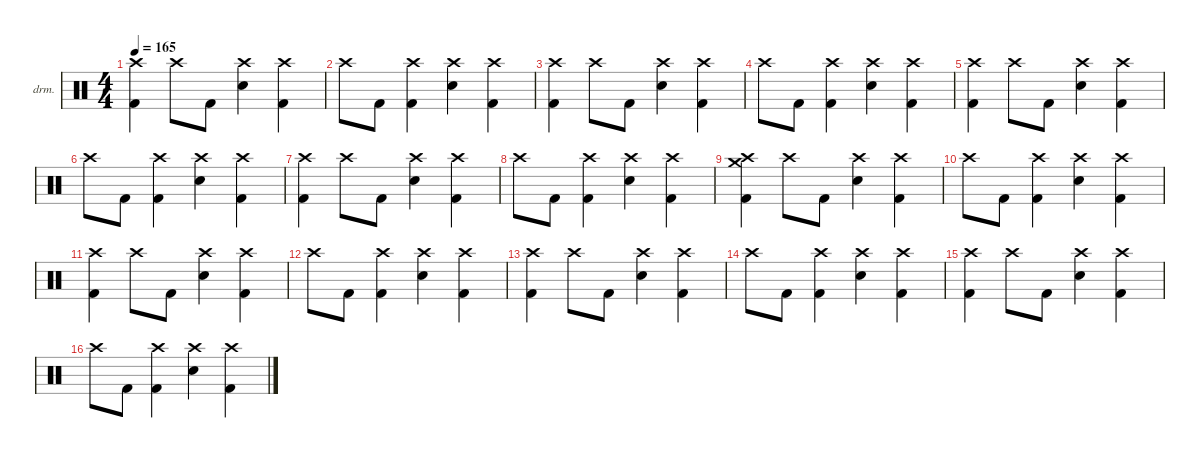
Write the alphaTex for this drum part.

\defaultSystemsLayout 4
\hideDynamics
\bracketExtendMode nobrackets
\firstSystemTrackNameOrientation horizontal
\otherSystemsTrackNameOrientation horizontal
\track ("Marty Chapman (Drums)" "drm.") {instrument percussion}
\staff {score}
\articulation defaults
\ts (4 4)
\tempo 165
\clef neutral
\ks c
("Crash high (hit)" "Kick (hit) 2").4{dy f beam Down} "Crash high (hit)".8{beam Down} "Kick (hit) 2".8{beam Down} ("Crash high (hit)" "Snare (hit) 2").4{beam Down} ("Crash high (hit)" "Kick (hit) 2").4{beam Down} |
"Crash high (hit)".8{beam Down} "Kick (hit) 2".8{beam Down} ("Crash high (hit)" "Kick (hit) 2").4{beam Down} ("Crash high (hit)" "Snare (hit) 2").4{beam Down} ("Crash high (hit)" "Kick (hit) 2").4{beam Down} |
("Crash high (hit)" "Kick (hit) 2").4{beam Down} "Crash high (hit)".8{beam Down} "Kick (hit) 2".8{beam Down} ("Crash high (hit)" "Snare (hit) 2").4{beam Down} ("Crash high (hit)" "Kick (hit) 2").4{beam Down} |
"Crash high (hit)".8{beam Down} "Kick (hit) 2".8{beam Down} ("Crash high (hit)" "Kick (hit) 2").4{beam Down} ("Crash high (hit)" "Snare (hit) 2").4{beam Down} ("Crash high (hit)" "Kick (hit) 2").4{beam Down} |
("Crash high (hit)" "Kick (hit) 2").4{beam Down} "Crash high (hit)".8{beam Down} "Kick (hit) 2".8{beam Down} ("Crash high (hit)" "Snare (hit) 2").4{beam Down} ("Crash high (hit)" "Kick (hit) 2").4{beam Down} |
"Crash high (hit)".8{beam Down} "Kick (hit) 2".8{beam Down} ("Crash high (hit)" "Kick (hit) 2").4{beam Down} ("Crash high (hit)" "Snare (hit) 2").4{beam Down} ("Crash high (hit)" "Kick (hit) 2").4{beam Down} |
("Crash high (hit)" "Kick (hit) 2").4{beam Down} "Crash high (hit)".8{beam Down} "Kick (hit) 2".8{beam Down} ("Crash high (hit)" "Snare (hit) 2").4{beam Down} ("Crash high (hit)" "Kick (hit) 2").4{beam Down} |
"Crash high (hit)".8{beam Down} "Kick (hit) 2".8{beam Down} ("Crash high (hit)" "Kick (hit) 2").4{beam Down} ("Crash high (hit)" "Snare (hit) 2").4{beam Down} ("Crash high (hit)" "Kick (hit) 2").4{beam Down} |
("Crash medium (hit)" "Crash high (hit)" "Kick (hit) 2").4{beam Down} "Crash high (hit)".8{beam Down} "Kick (hit) 2".8{beam Down} ("Crash high (hit)" "Snare (hit) 2").4{beam Down} ("Crash high (hit)" "Kick (hit) 2").4{beam Down} |
"Crash high (hit)".8{beam Down} "Kick (hit) 2".8{beam Down} ("Crash high (hit)" "Kick (hit) 2").4{beam Down} ("Crash high (hit)" "Snare (hit) 2").4{beam Down} ("Crash high (hit)" "Kick (hit) 2").4{beam Down} |
("Crash high (hit)" "Kick (hit) 2").4{beam Down} "Crash high (hit)".8{beam Down} "Kick (hit) 2".8{beam Down} ("Crash high (hit)" "Snare (hit) 2").4{beam Down} ("Crash high (hit)" "Kick (hit) 2").4{beam Down} |
"Crash high (hit)".8{beam Down} "Kick (hit) 2".8{beam Down} ("Crash high (hit)" "Kick (hit) 2").4{beam Down} ("Crash high (hit)" "Snare (hit) 2").4{beam Down} ("Crash high (hit)" "Kick (hit) 2").4{beam Down} |
("Crash high (hit)" "Kick (hit) 2").4{beam Down} "Crash high (hit)".8{beam Down} "Kick (hit) 2".8{beam Down} ("Crash high (hit)" "Snare (hit) 2").4{beam Down} ("Crash high (hit)" "Kick (hit) 2").4{beam Down} |
"Crash high (hit)".8{beam Down} "Kick (hit) 2".8{beam Down} ("Crash high (hit)" "Kick (hit) 2").4{beam Down} ("Crash high (hit)" "Snare (hit) 2").4{beam Down} ("Crash high (hit)" "Kick (hit) 2").4{beam Down} |
("Crash high (hit)" "Kick (hit) 2").4{beam Down} "Crash high (hit)".8{beam Down} "Kick (hit) 2".8{beam Down} ("Crash high (hit)" "Snare (hit) 2").4{beam Down} ("Crash high (hit)" "Kick (hit) 2").4{beam Down} |
"Crash high (hit)".8{beam Down} "Kick (hit) 2".8{beam Down} ("Crash high (hit)" "Kick (hit) 2").4{beam Down} ("Crash high (hit)" "Snare (hit) 2").4{beam Down} ("Crash high (hit)" "Kick (hit) 2").4{beam Down}
